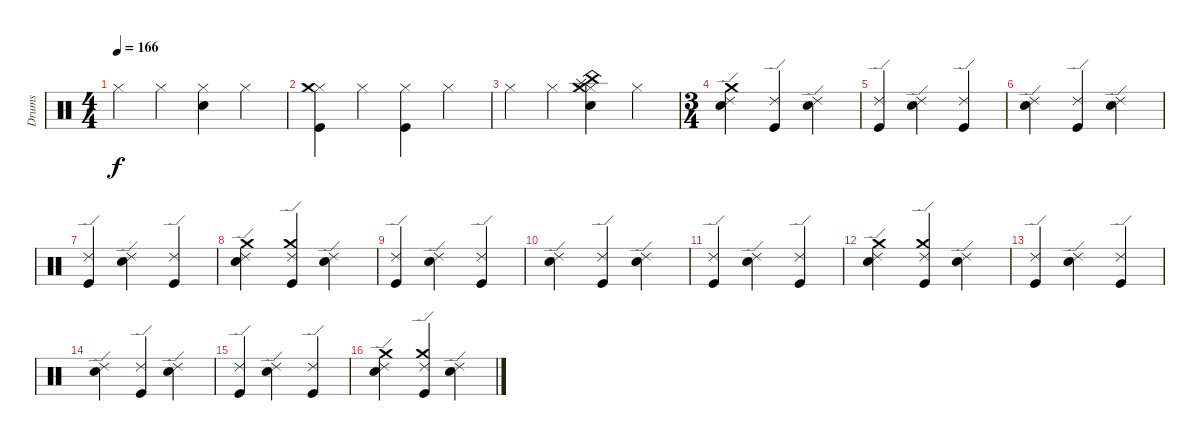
\track ("Drums" "Drums") {instrument percussion}
\staff {score}
\articulation defaults
\ts (4 4)
\tempo 166
\clef neutral
\ks c "Hi-Hat (closed)".4{dy f} "Hi-Hat (closed)".4
("Hi-Hat (closed)" "Snare (hit) 2").4 "Hi-Hat (closed)".4 |
("Hi-Hat (closed)" "Kick (hit)" "Crash medium (hit)").4 "Hi-Hat (closed)".4 ("Hi-Hat (closed)" "Kick (hit)").4 "Hi-Hat (closed)".4 |
"Hi-Hat (closed)".4 "Hi-Hat (closed)".4 ("Hi-Hat (closed)" "Snare (hit) 2" "Crash medium (hit)" "Splash (hit)" "China (hit)").4 "Hi-Hat (closed)".4 |
\ts (3 4)
("Ride (edge) 2" "Snare (hit) 2" "Crash medium (hit)").4 ("Ride (edge) 2" "Kick (hit)").4 ("Ride (edge) 2" "Snare (hit) 2").4 |
("Ride (edge) 2" "Kick (hit)").4 ("Ride (edge) 2" "Snare (hit) 2").4 ("Ride (edge) 2" "Kick (hit)").4 |
("Ride (edge) 2" "Snare (hit) 2").4 ("Ride (edge) 2" "Kick (hit)").4 ("Ride (edge) 2" "Snare (hit) 2").4 |
("Ride (edge) 2" "Kick (hit)").4 ("Ride (edge) 2" "Snare (hit) 2").4 ("Ride (edge) 2" "Kick (hit)").4 |
("Ride (edge) 2" "Snare (hit) 2" "Crash medium (hit)").4 ("Ride (edge) 2" "Kick (hit)" "Crash medium (hit)").4 ("Ride (edge) 2" "Snare (hit) 2").4 |
("Ride (edge) 2" "Kick (hit)").4 ("Ride (edge) 2" "Snare (hit) 2").4 ("Ride (edge) 2" "Kick (hit)").4 |
("Ride (edge) 2" "Snare (hit) 2").4 ("Ride (edge) 2" "Kick (hit)").4 ("Ride (edge) 2" "Snare (hit) 2").4 |
("Ride (edge) 2" "Kick (hit)").4 ("Ride (edge) 2" "Snare (hit) 2").4 ("Ride (edge) 2" "Kick (hit)").4 |
("Ride (edge) 2" "Snare (hit) 2" "Crash medium (hit)").4 ("Ride (edge) 2" "Kick (hit)" "Crash medium (hit)").4 ("Ride (edge) 2" "Snare (hit) 2").4 |
("Ride (edge) 2" "Kick (hit)").4 ("Ride (edge) 2" "Snare (hit) 2").4 ("Ride (edge) 2" "Kick (hit)").4 |
("Ride (edge) 2" "Snare (hit) 2").4 ("Ride (edge) 2" "Kick (hit)").4 ("Ride (edge) 2" "Snare (hit) 2").4 |
("Ride (edge) 2" "Kick (hit)").4 ("Ride (edge) 2" "Snare (hit) 2").4 ("Ride (edge) 2" "Kick (hit)").4 |
("Ride (edge) 2" "Snare (hit) 2" "Crash medium (hit)").4 ("Ride (edge) 2" "Kick (hit)" "Crash medium (hit)").4 ("Ride (edge) 2" "Snare (hit) 2").4
